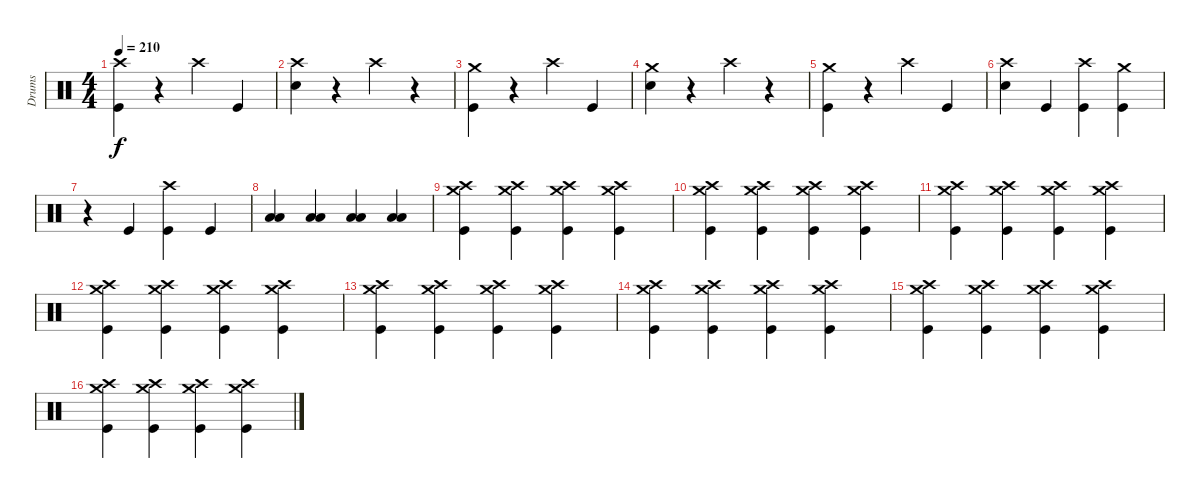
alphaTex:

\track ("Drums" "Drums") {instrument percussion}
\staff {score}
\articulation defaults
\ts (4 4)
\tempo 210
\clef neutral
\ks c
("Crash high (hit)" "Kick (hit)").4{dy f} r.4 "Crash high (hit)".4 "Kick (hit)".4 |
("Crash high (hit)" "Snare (hit) 2").4 r.4 "Crash high (hit)".4 r.4 |
("Crash medium (hit)" "Kick (hit)").4 r.4 "Crash high (hit)".4 "Kick (hit)".4 |
("Crash medium (hit)" "Snare (hit) 2").4 r.4 "Crash high (hit)".4 r.4 |
("Crash medium (hit)" "Kick (hit)").4 r.4 "Crash high (hit)".4 "Kick (hit)".4 |
("Crash high (hit)" "Snare (hit) 2").4 "Kick (hit)".4 ("Crash high (hit)" "Kick (hit)").4 ("Crash medium (hit)" "Kick (hit)").4 |
r.4 "Kick (hit)".4 ("Crash high (hit)" "Kick (hit)").4 "Kick (hit)".4 |
("Low Tom (hit)" "Low Floor Tom (hit)").4 ("Low Tom (hit)" "Low Floor Tom (hit)").4 ("Low Tom (hit)" "Low Floor Tom (hit)").4 ("Low Tom (hit)" "Low Floor Tom (hit)").4 |
("Crash high (hit)" "Crash medium (hit)" "Kick (hit)").4 ("Crash high (hit)" "Crash medium (hit)" "Kick (hit)").4 ("Crash high (hit)" "Crash medium (hit)" "Kick (hit)").4 ("Crash high (hit)" "Crash medium (hit)" "Kick (hit)").4 |
("Crash high (hit)" "Crash medium (hit)" "Kick (hit)").4 ("Crash high (hit)" "Crash medium (hit)" "Kick (hit)").4 ("Crash high (hit)" "Crash medium (hit)" "Kick (hit)").4 ("Crash high (hit)" "Crash medium (hit)" "Kick (hit)").4 |
("Crash high (hit)" "Crash medium (hit)" "Kick (hit)").4 ("Crash high (hit)" "Crash medium (hit)" "Kick (hit)").4 ("Crash high (hit)" "Crash medium (hit)" "Kick (hit)").4 ("Crash high (hit)" "Crash medium (hit)" "Kick (hit)").4 |
("Crash high (hit)" "Crash medium (hit)" "Kick (hit)").4 ("Crash high (hit)" "Crash medium (hit)" "Kick (hit)").4 ("Crash high (hit)" "Crash medium (hit)" "Kick (hit)").4 ("Crash high (hit)" "Crash medium (hit)" "Kick (hit)").4 |
("Crash high (hit)" "Crash medium (hit)" "Kick (hit)").4 ("Crash high (hit)" "Crash medium (hit)" "Kick (hit)").4 ("Crash high (hit)" "Crash medium (hit)" "Kick (hit)").4 ("Crash high (hit)" "Crash medium (hit)" "Kick (hit)").4 |
("Crash high (hit)" "Crash medium (hit)" "Kick (hit)").4 ("Crash high (hit)" "Crash medium (hit)" "Kick (hit)").4 ("Crash high (hit)" "Crash medium (hit)" "Kick (hit)").4 ("Crash high (hit)" "Crash medium (hit)" "Kick (hit)").4 |
("Crash high (hit)" "Crash medium (hit)" "Kick (hit)").4 ("Crash high (hit)" "Crash medium (hit)" "Kick (hit)").4 ("Crash high (hit)" "Crash medium (hit)" "Kick (hit)").4 ("Crash high (hit)" "Crash medium (hit)" "Kick (hit)").4 |
("Crash high (hit)" "Crash medium (hit)" "Kick (hit)").4 ("Crash high (hit)" "Crash medium (hit)" "Kick (hit)").4 ("Crash high (hit)" "Crash medium (hit)" "Kick (hit)").4 ("Crash high (hit)" "Crash medium (hit)" "Kick (hit)").4
